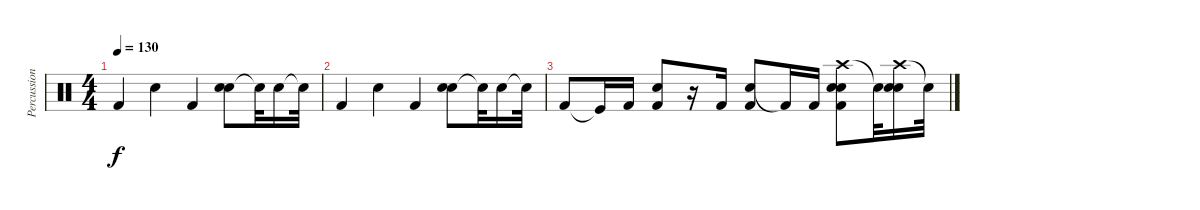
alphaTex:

\track ("Percussion" "Percussion") {instrument percussion}
\staff {score}
\articulation defaults
\ts (4 4)
\tempo 130
\clef neutral
\ks c "Kick (hit) 2".4{dy f} "Snare (hit) 2".4 "Kick (hit) 2".4
("Hand Clap (hit)" "Snare (hit) 2").8 "Hand Clap (hit)"{t}.32 "Hand Clap (hit)".16 "Snare (hit)"{t}.32 |
"Kick (hit) 2".4 "Snare (hit) 2".4 "Kick (hit) 2".4 ("Hand Clap (hit)" "Snare (hit) 2").8 "Hand Clap (hit)"{t}.32 "Hand Clap (hit)".16 "Snare (hit)"{t}.32 |
"Kick (hit) 2".8 "Kick (hit)"{t}.16 "Kick (hit) 2".16 ("Snare (hit) 2" "Kick (hit) 2").8 r.16 "Kick (hit) 2".16 ("Snare (hit) 2" "Kick (hit) 2").8 "Kick (hit) 2"{t}.16 "Kick (hit) 2".16 ("Crash high (hit)" "Hand Clap (hit)" "Snare (hit) 2" "Kick (hit) 2").8 "Snare (hit)"{t}.32 ("Crash high (hit)" "Hand Clap (hit)" "Snare (hit) 2").16 "Snare (hit)"{t}.32
